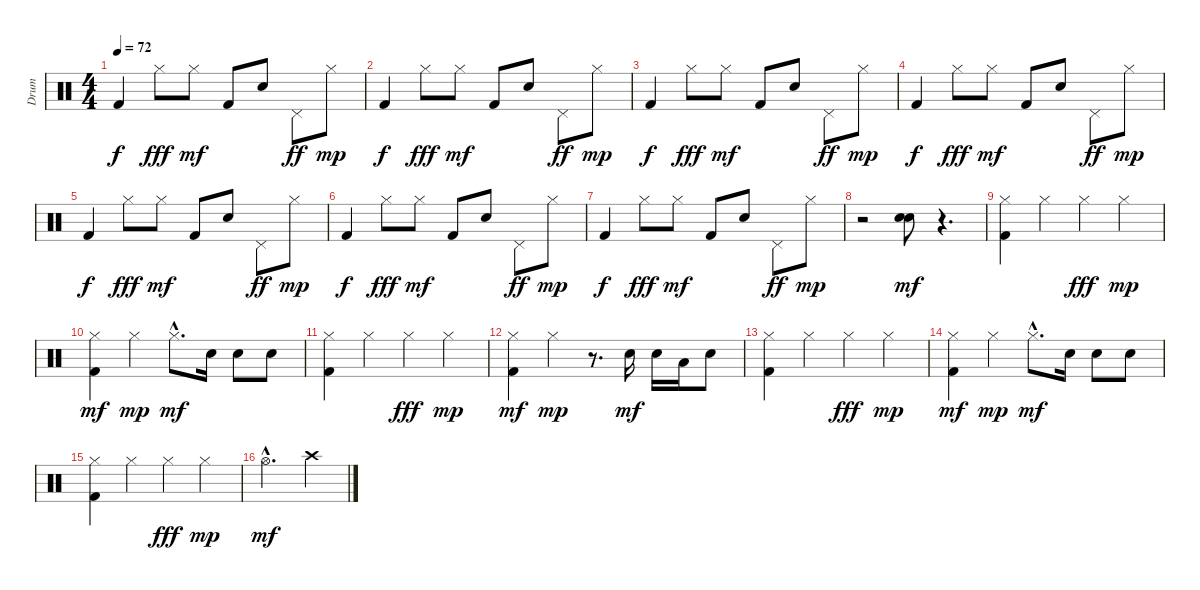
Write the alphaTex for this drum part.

\track ("Drum" "Drum") {instrument percussion}
\staff {score}
\articulation defaults
\ts (4 4)
\tempo 72
\clef neutral
\ks c "Kick (hit) 2".4{dy f} "Hi-Hat (closed)".8{dy fff} "Hi-Hat (closed)".8{dy mf} "Kick (hit) 2".8 "Snare (hit) 2".8 "Pedal Hi-Hat (hit)".8{dy ff} "Hi-Hat (closed)".8{dy mp}
|
"Kick (hit) 2".4{dy f} "Hi-Hat (closed)".8{dy fff} "Hi-Hat (closed)".8{dy mf} "Kick (hit) 2".8 "Snare (hit) 2".8 "Pedal Hi-Hat (hit)".8{dy ff} "Hi-Hat (closed)".8{dy mp} |
"Kick (hit) 2".4{dy f} "Hi-Hat (closed)".8{dy fff} "Hi-Hat (closed)".8{dy mf} "Kick (hit) 2".8 "Snare (hit) 2".8 "Pedal Hi-Hat (hit)".8{dy ff} "Hi-Hat (closed)".8{dy mp} |
"Kick (hit) 2".4{dy f} "Hi-Hat (closed)".8{dy fff} "Hi-Hat (closed)".8{dy mf} "Kick (hit) 2".8 "Snare (hit) 2".8 "Pedal Hi-Hat (hit)".8{dy ff} "Hi-Hat (closed)".8{dy mp} |
"Kick (hit) 2".4{dy f} "Hi-Hat (closed)".8{dy fff} "Hi-Hat (closed)".8{dy mf} "Kick (hit) 2".8 "Snare (hit) 2".8 "Pedal Hi-Hat (hit)".8{dy ff} "Hi-Hat (closed)".8{dy mp} |
"Kick (hit) 2".4{dy f} "Hi-Hat (closed)".8{dy fff} "Hi-Hat (closed)".8{dy mf} "Kick (hit) 2".8 "Snare (hit) 2".8 "Pedal Hi-Hat (hit)".8{dy ff} "Hi-Hat (closed)".8{dy mp} |
"Kick (hit) 2".4{dy f} "Hi-Hat (closed)".8{dy fff} "Hi-Hat (closed)".8{dy mf} "Kick (hit) 2".8 "Snare (hit) 2".8 "Pedal Hi-Hat (hit)".8{dy ff} "Hi-Hat (closed)".8{dy mp} |
r.2 ("Electric Snare (hit)" "Snare (hit) 2").8{dy mf} r.4{d} |
("Kick (hit) 2" "Hi-Hat (closed)").4 "Hi-Hat (closed)".4 "Hi-Hat (closed)".4{dy fff} "Hi-Hat (closed)".4{dy mp} |
("Kick (hit) 2" "Hi-Hat (closed)").4{dy mf} "Hi-Hat (closed)".4{dy mp} "Hi-Hat (closed)"{hac}.8{d dy mf} "Snare (hit) 2".16 "Electric Snare (hit)".8 "Electric Snare (hit)".8 |
("Kick (hit) 2" "Hi-Hat (closed)").4 "Hi-Hat (closed)".4 "Hi-Hat (closed)".4{dy fff} "Hi-Hat (closed)".4{dy mp} |
("Kick (hit) 2" "Hi-Hat (closed)").4{dy mf} "Hi-Hat (closed)".4{dy mp} r.8{d} "Snare (hit) 2".16{dy mf} "Electric Snare (hit)".16 "Low Tom (hit)".16 "Electric Snare (hit)".8 |
("Kick (hit) 2" "Hi-Hat (closed)").4 "Hi-Hat (closed)".4 "Hi-Hat (closed)".4{dy fff} "Hi-Hat (closed)".4{dy mp} |
("Kick (hit) 2" "Hi-Hat (closed)").4{dy mf} "Hi-Hat (closed)".4{dy mp} "Hi-Hat (closed)"{hac}.8{d dy mf} "Snare (hit) 2".16 "Electric Snare (hit)".8 "Electric Snare (hit)".8 |
("Kick (hit) 2" "Hi-Hat (closed)").4 "Hi-Hat (closed)".4 "Hi-Hat (closed)".4{dy fff} "Hi-Hat (closed)".4{dy mp} |
"Hi-Hat (open)"{hac}.2{d dy mf} "Crash high (hit)".4
